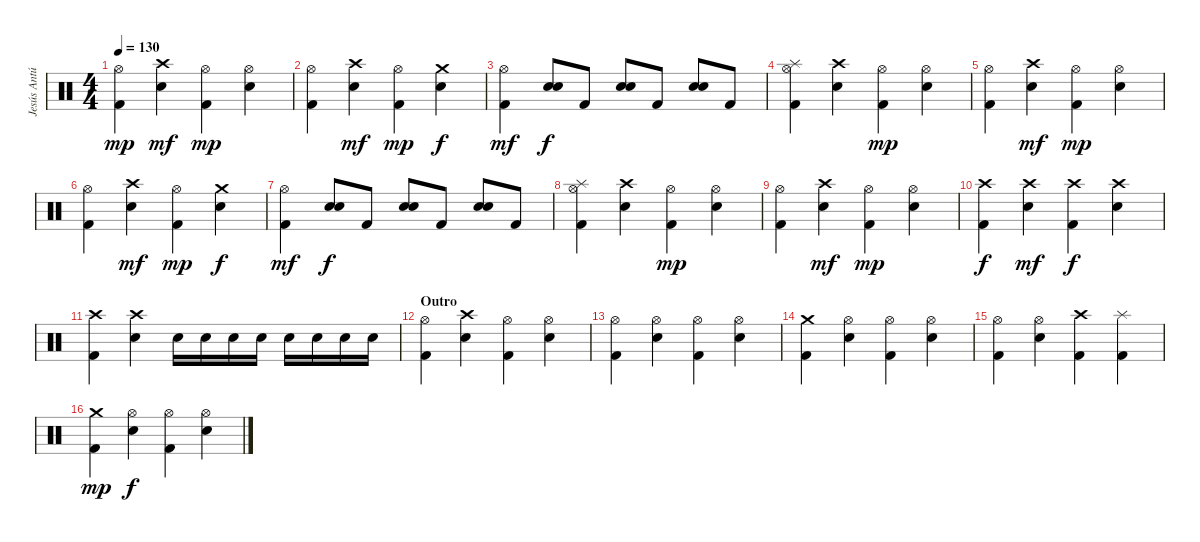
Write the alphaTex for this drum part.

\track ("Jesús Antúnez (Bateria)" "Jesús Antú") {instrument percussion}
\staff {score}
\articulation defaults
\ts (4 4)
\tempo 130
\clef neutral
\ks c
("Hi-Hat (open)" "Kick (hit) 2").4{dy mp} ("Snare (hit) 2" "Crash high (hit)").4{dy mf} ("Kick (hit) 2" "Hi-Hat (open)").4{dy mp} ("Snare (hit) 2" "Hi-Hat (open)").4 |
("Hi-Hat (open)" "Kick (hit) 2").4 ("Snare (hit) 2" "Crash high (hit)").4{dy mf} ("Kick (hit) 2" "Hi-Hat (open)").4{dy mp} ("Snare (hit) 2" "Crash medium (hit)").4{dy f} |
("Hi-Hat (open)" "Kick (hit) 2").4{dy mf} ("Snare (hit) 2" "Snare (hit) 2").8{dy f} "Kick (hit) 2".8 ("Snare (hit) 2" "Snare (hit) 2").8 "Kick (hit) 2".8 ("Snare (hit) 2" "Snare (hit) 2").8 "Kick (hit) 2".8 |
("Splash (hit)" "Hi-Hat (open)" "Kick (hit) 2").4 ("Snare (hit) 2" "Crash high (hit)").4 ("Kick (hit) 2" "Hi-Hat (open)").4{dy mp} ("Snare (hit) 2" "Hi-Hat (open)").4 |
("Hi-Hat (open)" "Kick (hit) 2").4 ("Snare (hit) 2" "Crash high (hit)").4{dy mf} ("Kick (hit) 2" "Hi-Hat (open)").4{dy mp} ("Snare (hit) 2" "Hi-Hat (open)").4 |
("Hi-Hat (open)" "Kick (hit) 2").4 ("Snare (hit) 2" "Crash high (hit)").4{dy mf} ("Kick (hit) 2" "Hi-Hat (open)").4{dy mp} ("Snare (hit) 2" "Crash medium (hit)").4{dy f} |
("Hi-Hat (open)" "Kick (hit) 2").4{dy mf} ("Snare (hit) 2" "Snare (hit) 2").8{dy f} "Kick (hit) 2".8 ("Snare (hit) 2" "Snare (hit) 2").8 "Kick (hit) 2".8 ("Snare (hit) 2" "Snare (hit) 2").8 "Kick (hit) 2".8 |
("Splash (hit)" "Hi-Hat (open)" "Kick (hit) 2").4 ("Snare (hit) 2" "Crash high (hit)").4 ("Kick (hit) 2" "Hi-Hat (open)").4{dy mp} ("Snare (hit) 2" "Hi-Hat (open)").4 |
("Hi-Hat (open)" "Kick (hit) 2").4 ("Snare (hit) 2" "Crash high (hit)").4{dy mf} ("Kick (hit) 2" "Hi-Hat (open)").4{dy mp} ("Snare (hit) 2" "Hi-Hat (open)").4 |
("Crash high (hit)" "Kick (hit) 2").4{dy f} ("Snare (hit) 2" "Crash high (hit)").4{dy mf} ("Kick (hit) 2" "Crash high (hit)").4{dy f} ("Snare (hit) 2" "Crash high (hit)").4 |
("Crash high (hit)" "Kick (hit) 2").4 ("Crash high (hit)" "Snare (hit) 2").4 "Snare (hit) 2".16 "Snare (hit) 2".16 "Snare (hit) 2".16 "Snare (hit) 2".16 "Snare (hit) 2".16 "Snare (hit) 2".16 "Snare (hit) 2".16 "Snare (hit) 2".16 |
\section ("" "Outro")
("Kick (hit) 2" "Hi-Hat (open)").4 ("Snare (hit) 2" "Crash high (hit)").4 ("Kick (hit) 2" "Hi-Hat (open)").4 ("Snare (hit) 2" "Hi-Hat (open)").4 |
("Kick (hit) 2" "Hi-Hat (open)").4 ("Snare (hit) 2" "Hi-Hat (open)").4 ("Kick (hit) 2" "Hi-Hat (open)").4 ("Snare (hit) 2" "Hi-Hat (open)").4 |
("Kick (hit) 2" "Crash medium (hit)").4 ("Snare (hit) 2" "Hi-Hat (open)").4 ("Kick (hit) 2" "Hi-Hat (open)").4 ("Snare (hit) 2" "Hi-Hat (open)").4 |
("Kick (hit) 2" "Hi-Hat (open)").4 ("Snare (hit) 2" "Hi-Hat (open)").4 ("Kick (hit) 2" "Crash high (hit)").4 ("Kick (hit) 2" "Splash (hit)").4 |
("Kick (hit) 2" "Crash medium (hit)").4{dy mp} ("Snare (hit) 2" "Hi-Hat (open)").4{dy f} ("Kick (hit) 2" "Hi-Hat (open)").4 ("Snare (hit) 2" "Hi-Hat (open)").4
